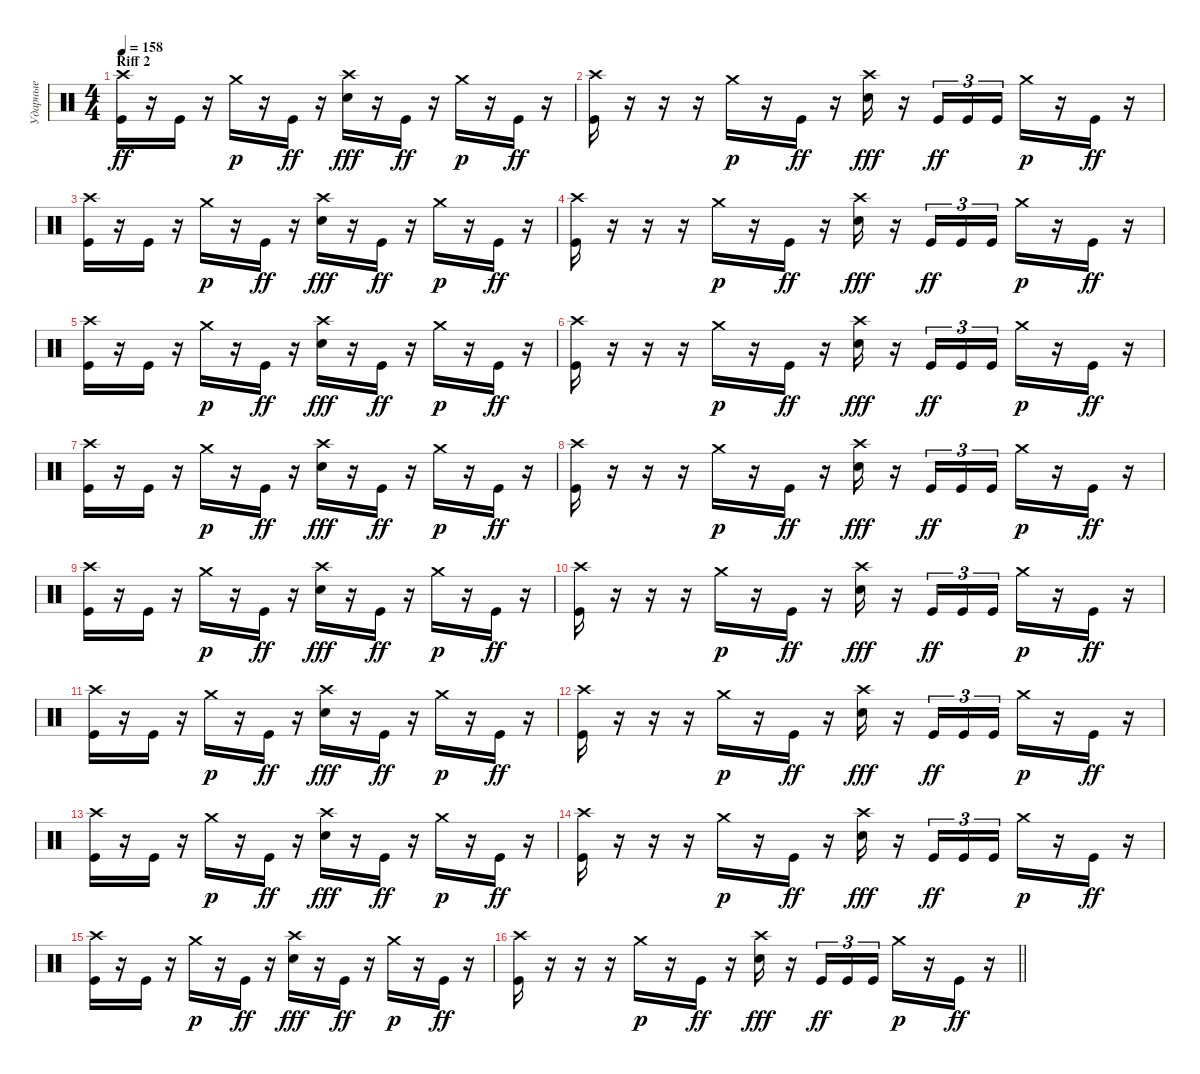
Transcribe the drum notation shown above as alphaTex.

\track ("Ударные" "Ударные") {instrument percussion}
\staff {score}
\articulation defaults
\ts (4 4)
\section ("" "Riff 2")
\tempo 158
\clef neutral
\ks c
("Crash high (hit)" "Kick (hit)").16{dy ff} r.16 "Kick (hit)".16 r.16 "Crash medium (hit)".16{dy p} r.16 "Kick (hit)".16{dy ff} r.16 ("Crash high (hit)" "Snare (hit) 2").16{dy fff} r.16 "Kick (hit)".16{dy ff} r.16 "Crash medium (hit)".16{dy p} r.16 "Kick (hit)".16{dy ff} r.16 |
("Crash high (hit)" "Kick (hit)").16 r.16 r.16 r.16 "Crash medium (hit)".16{dy p} r.16 "Kick (hit)".16{dy ff} r.16 ("Crash high (hit)" "Snare (hit) 2").16{dy fff} r.16 "Kick (hit)".16{tu (3 2) dy ff} "Kick (hit)".16{tu (3 2)} "Kick (hit)".16{tu (3 2)} "Crash medium (hit)".16{dy p} r.16 "Kick (hit)".16{dy ff} r.16 |
("Crash high (hit)" "Kick (hit)").16 r.16 "Kick (hit)".16 r.16 "Crash medium (hit)".16{dy p} r.16 "Kick (hit)".16{dy ff} r.16 ("Crash high (hit)" "Snare (hit) 2").16{dy fff} r.16 "Kick (hit)".16{dy ff} r.16 "Crash medium (hit)".16{dy p} r.16 "Kick (hit)".16{dy ff} r.16 |
("Crash high (hit)" "Kick (hit)").16 r.16 r.16 r.16 "Crash medium (hit)".16{dy p} r.16 "Kick (hit)".16{dy ff} r.16 ("Crash high (hit)" "Snare (hit) 2").16{dy fff} r.16 "Kick (hit)".16{tu (3 2) dy ff} "Kick (hit)".16{tu (3 2)} "Kick (hit)".16{tu (3 2)} "Crash medium (hit)".16{dy p} r.16 "Kick (hit)".16{dy ff} r.16 |
("Crash high (hit)" "Kick (hit)").16 r.16 "Kick (hit)".16 r.16 "Crash medium (hit)".16{dy p} r.16 "Kick (hit)".16{dy ff} r.16 ("Crash high (hit)" "Snare (hit) 2").16{dy fff} r.16 "Kick (hit)".16{dy ff} r.16 "Crash medium (hit)".16{dy p} r.16 "Kick (hit)".16{dy ff} r.16 |
("Crash high (hit)" "Kick (hit)").16 r.16 r.16 r.16 "Crash medium (hit)".16{dy p} r.16 "Kick (hit)".16{dy ff} r.16 ("Crash high (hit)" "Snare (hit) 2").16{dy fff} r.16 "Kick (hit)".16{tu (3 2) dy ff} "Kick (hit)".16{tu (3 2)} "Kick (hit)".16{tu (3 2)} "Crash medium (hit)".16{dy p} r.16 "Kick (hit)".16{dy ff} r.16 |
("Crash high (hit)" "Kick (hit)").16 r.16 "Kick (hit)".16 r.16 "Crash medium (hit)".16{dy p} r.16 "Kick (hit)".16{dy ff} r.16 ("Crash high (hit)" "Snare (hit) 2").16{dy fff} r.16 "Kick (hit)".16{dy ff} r.16 "Crash medium (hit)".16{dy p} r.16 "Kick (hit)".16{dy ff} r.16 |
("Crash high (hit)" "Kick (hit)").16 r.16 r.16 r.16 "Crash medium (hit)".16{dy p} r.16 "Kick (hit)".16{dy ff} r.16 ("Crash high (hit)" "Snare (hit) 2").16{dy fff} r.16 "Kick (hit)".16{tu (3 2) dy ff} "Kick (hit)".16{tu (3 2)} "Kick (hit)".16{tu (3 2)} "Crash medium (hit)".16{dy p} r.16 "Kick (hit)".16{dy ff} r.16 |
("Crash high (hit)" "Kick (hit)").16 r.16 "Kick (hit)".16 r.16 "Crash medium (hit)".16{dy p} r.16 "Kick (hit)".16{dy ff} r.16 ("Crash high (hit)" "Snare (hit) 2").16{dy fff} r.16 "Kick (hit)".16{dy ff} r.16 "Crash medium (hit)".16{dy p} r.16 "Kick (hit)".16{dy ff} r.16 |
("Crash high (hit)" "Kick (hit)").16 r.16 r.16 r.16 "Crash medium (hit)".16{dy p} r.16 "Kick (hit)".16{dy ff} r.16 ("Crash high (hit)" "Snare (hit) 2").16{dy fff} r.16 "Kick (hit)".16{tu (3 2) dy ff} "Kick (hit)".16{tu (3 2)} "Kick (hit)".16{tu (3 2)} "Crash medium (hit)".16{dy p} r.16 "Kick (hit)".16{dy ff} r.16 |
("Crash high (hit)" "Kick (hit)").16 r.16 "Kick (hit)".16 r.16 "Crash medium (hit)".16{dy p} r.16 "Kick (hit)".16{dy ff} r.16 ("Crash high (hit)" "Snare (hit) 2").16{dy fff} r.16 "Kick (hit)".16{dy ff} r.16 "Crash medium (hit)".16{dy p} r.16 "Kick (hit)".16{dy ff} r.16 |
("Crash high (hit)" "Kick (hit)").16 r.16 r.16 r.16 "Crash medium (hit)".16{dy p} r.16 "Kick (hit)".16{dy ff} r.16 ("Crash high (hit)" "Snare (hit) 2").16{dy fff} r.16 "Kick (hit)".16{tu (3 2) dy ff} "Kick (hit)".16{tu (3 2)} "Kick (hit)".16{tu (3 2)} "Crash medium (hit)".16{dy p} r.16 "Kick (hit)".16{dy ff} r.16 |
("Crash high (hit)" "Kick (hit)").16 r.16 "Kick (hit)".16 r.16 "Crash medium (hit)".16{dy p} r.16 "Kick (hit)".16{dy ff} r.16 ("Crash high (hit)" "Snare (hit) 2").16{dy fff} r.16 "Kick (hit)".16{dy ff} r.16 "Crash medium (hit)".16{dy p} r.16 "Kick (hit)".16{dy ff} r.16 |
("Crash high (hit)" "Kick (hit)").16 r.16 r.16 r.16 "Crash medium (hit)".16{dy p} r.16 "Kick (hit)".16{dy ff} r.16 ("Crash high (hit)" "Snare (hit) 2").16{dy fff} r.16 "Kick (hit)".16{tu (3 2) dy ff} "Kick (hit)".16{tu (3 2)} "Kick (hit)".16{tu (3 2)} "Crash medium (hit)".16{dy p} r.16 "Kick (hit)".16{dy ff} r.16 |
("Crash high (hit)" "Kick (hit)").16 r.16 "Kick (hit)".16 r.16 "Crash medium (hit)".16{dy p} r.16 "Kick (hit)".16{dy ff} r.16 ("Crash high (hit)" "Snare (hit) 2").16{dy fff} r.16 "Kick (hit)".16{dy ff} r.16 "Crash medium (hit)".16{dy p} r.16 "Kick (hit)".16{dy ff} r.16 |
\barLineRight lightlight
("Crash high (hit)" "Kick (hit)").16 r.16 r.16 r.16 "Crash medium (hit)".16{dy p} r.16 "Kick (hit)".16{dy ff} r.16 ("Crash high (hit)" "Snare (hit) 2").16{dy fff} r.16 "Kick (hit)".16{tu (3 2) dy ff} "Kick (hit)".16{tu (3 2)} "Kick (hit)".16{tu (3 2)} "Crash medium (hit)".16{dy p} r.16 "Kick (hit)".16{dy ff} r.16
